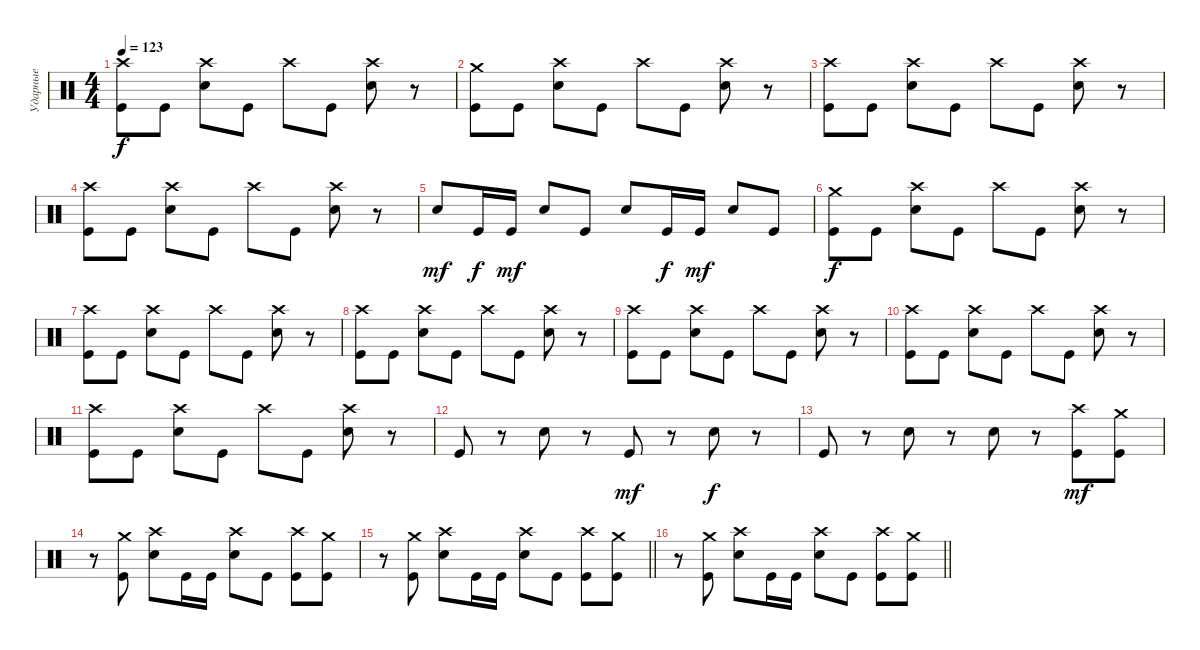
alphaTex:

\track ("Ударные" "Ударные") {instrument percussion}
\staff {score}
\articulation defaults
\ts (4 4)
\tempo 123
\clef neutral
\ks c
("Crash high (hit)" "Kick (hit)").8{dy f} "Kick (hit)".8 ("Crash high (hit)" "Electric Snare (hit)").8 "Kick (hit)".8 "Crash high (hit)".8 "Kick (hit)".8 ("Crash high (hit)" "Electric Snare (hit)").8 r.8 |
("Crash medium (hit)" "Kick (hit)").8 "Kick (hit)".8 ("Crash high (hit)" "Electric Snare (hit)").8 "Kick (hit)".8 "Crash high (hit)".8 "Kick (hit)".8 ("Crash high (hit)" "Electric Snare (hit)").8 r.8 |
("Crash high (hit)" "Kick (hit)").8 "Kick (hit)".8 ("Crash high (hit)" "Electric Snare (hit)").8 "Kick (hit)".8 "Crash high (hit)".8 "Kick (hit)".8 ("Crash high (hit)" "Electric Snare (hit)").8 r.8 |
("Crash high (hit)" "Kick (hit)").8 "Kick (hit)".8 ("Crash high (hit)" "Electric Snare (hit)").8 "Kick (hit)".8 "Crash high (hit)".8 "Kick (hit)".8 ("Crash high (hit)" "Electric Snare (hit)").8 r.8 |
"Electric Snare (hit)".8{dy mf} "Kick (hit)".16{dy f} "Kick (hit)".16{dy mf} "Electric Snare (hit)".8 "Kick (hit)".8 "Electric Snare (hit)".8 "Kick (hit)".16{dy f} "Kick (hit)".16{dy mf} "Electric Snare (hit)".8 "Kick (hit)".8 |
("Crash medium (hit)" "Kick (hit)").8{dy f} "Kick (hit)".8 ("Crash high (hit)" "Electric Snare (hit)").8 "Kick (hit)".8 "Crash high (hit)".8 "Kick (hit)".8 ("Crash high (hit)" "Electric Snare (hit)").8 r.8 |
("Crash high (hit)" "Kick (hit)").8 "Kick (hit)".8 ("Crash high (hit)" "Electric Snare (hit)").8 "Kick (hit)".8 "Crash high (hit)".8 "Kick (hit)".8 ("Crash high (hit)" "Electric Snare (hit)").8 r.8 |
("Crash high (hit)" "Kick (hit)").8 "Kick (hit)".8 ("Crash high (hit)" "Electric Snare (hit)").8 "Kick (hit)".8 "Crash high (hit)".8 "Kick (hit)".8 ("Crash high (hit)" "Electric Snare (hit)").8 r.8 |
("Crash high (hit)" "Kick (hit)").8 "Kick (hit)".8 ("Crash high (hit)" "Electric Snare (hit)").8 "Kick (hit)".8 "Crash high (hit)".8 "Kick (hit)".8 ("Crash high (hit)" "Electric Snare (hit)").8 r.8 |
("Crash high (hit)" "Kick (hit)").8 "Kick (hit)".8 ("Crash high (hit)" "Electric Snare (hit)").8 "Kick (hit)".8 "Crash high (hit)".8 "Kick (hit)".8 ("Crash high (hit)" "Electric Snare (hit)").8 r.8 |
("Crash high (hit)" "Kick (hit)").8 "Kick (hit)".8 ("Crash high (hit)" "Electric Snare (hit)").8 "Kick (hit)".8 "Crash high (hit)".8 "Kick (hit)".8 ("Crash high (hit)" "Electric Snare (hit)").8 r.8 |
"Kick (hit)".8 r.8 "Electric Snare (hit)".8 r.8 "Kick (hit)".8{dy mf} r.8 "Electric Snare (hit)".8{dy f} r.8 |
"Kick (hit)".8 r.8 "Electric Snare (hit)".8 r.8 "Electric Snare (hit)".8 r.8 ("Crash high (hit)" "Kick (hit)").8{dy mf} ("Crash medium (hit)" "Kick (hit)").8 |
r.8 ("Crash medium (hit)" "Kick (hit)").8 ("Crash high (hit)" "Electric Snare (hit)").8 "Kick (hit)".16 "Kick (hit)".16 ("Crash high (hit)" "Electric Snare (hit)").8 "Kick (hit)".8 ("Crash high (hit)" "Kick (hit)").8 ("Crash medium (hit)" "Kick (hit)").8 |
\barLineRight lightlight
r.8 ("Crash medium (hit)" "Kick (hit)").8 ("Crash high (hit)" "Electric Snare (hit)").8 "Kick (hit)".16 "Kick (hit)".16 ("Crash high (hit)" "Electric Snare (hit)").8 "Kick (hit)".8 ("Crash high (hit)" "Kick (hit)").8 ("Crash medium (hit)" "Kick (hit)").8 |
\barLineRight lightlight
r.8 ("Crash medium (hit)" "Kick (hit)").8 ("Crash high (hit)" "Electric Snare (hit)").8 "Kick (hit)".16 "Kick (hit)".16 ("Crash high (hit)" "Electric Snare (hit)").8 "Kick (hit)".8 ("Crash high (hit)" "Kick (hit)").8 ("Crash medium (hit)" "Kick (hit)").8
